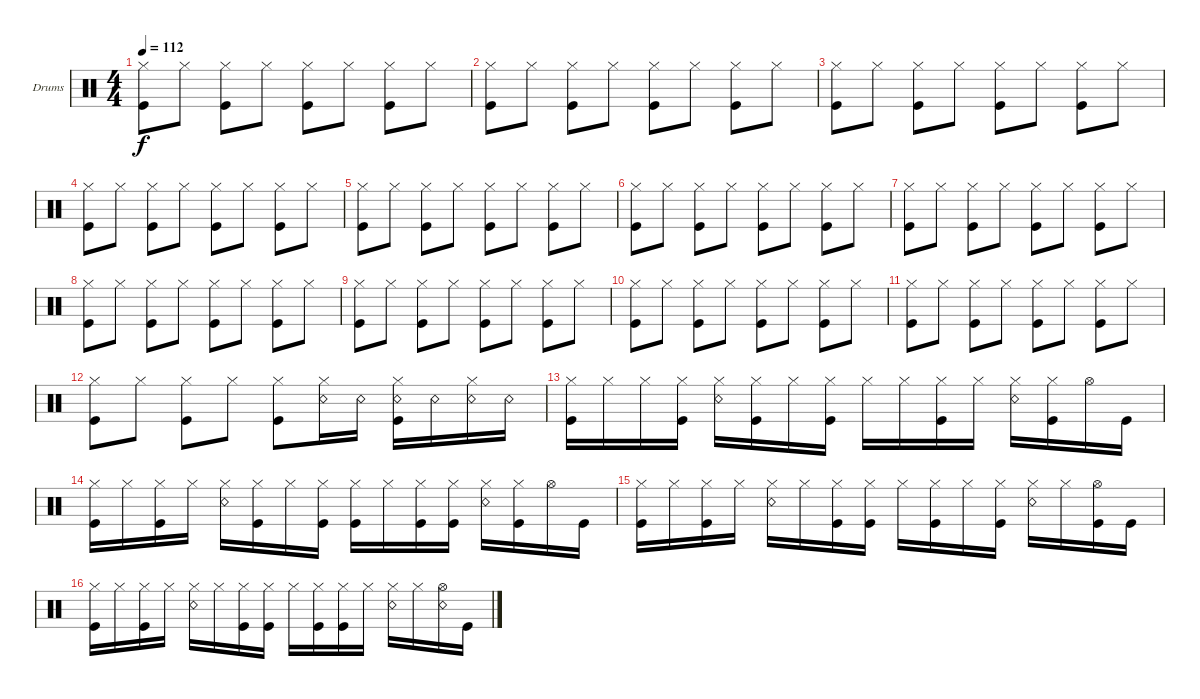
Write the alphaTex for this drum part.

\defaultSystemsLayout 4
\bracketExtendMode groupsimilarinstruments
\firstSystemTrackNameOrientation horizontal
\otherSystemsTrackNameOrientation horizontal
\track ("Drumkit" "Drums") {instrument percussion}
\staff {score}
\articulation defaults
\ts (4 4)
\tempo 112
\clef neutral
\ks c
("Kick (hit)" "Hi-Hat (closed)").8{dy f} "Hi-Hat (closed)".8 ("Hi-Hat (closed)" "Kick (hit)").8 "Hi-Hat (closed)".8 ("Hi-Hat (closed)" "Kick (hit)").8 "Hi-Hat (closed)".8 ("Hi-Hat (closed)" "Kick (hit)").8 "Hi-Hat (closed)".8 |
("Kick (hit)" "Hi-Hat (closed)").8 "Hi-Hat (closed)".8 ("Hi-Hat (closed)" "Kick (hit)").8 "Hi-Hat (closed)".8 ("Hi-Hat (closed)" "Kick (hit)").8 "Hi-Hat (closed)".8 ("Hi-Hat (closed)" "Kick (hit)").8 "Hi-Hat (closed)".8 |
("Kick (hit)" "Hi-Hat (closed)").8 "Hi-Hat (closed)".8 ("Hi-Hat (closed)" "Kick (hit)").8 "Hi-Hat (closed)".8 ("Hi-Hat (closed)" "Kick (hit)").8 "Hi-Hat (closed)".8 ("Hi-Hat (closed)" "Kick (hit)").8 "Hi-Hat (closed)".8 |
("Kick (hit)" "Hi-Hat (closed)").8 "Hi-Hat (closed)".8 ("Hi-Hat (closed)" "Kick (hit)").8 "Hi-Hat (closed)".8 ("Hi-Hat (closed)" "Kick (hit)").8 "Hi-Hat (closed)".8 ("Hi-Hat (closed)" "Kick (hit)").8 "Hi-Hat (closed)".8 |
("Kick (hit)" "Hi-Hat (closed)").8 "Hi-Hat (closed)".8 ("Hi-Hat (closed)" "Kick (hit)").8 "Hi-Hat (closed)".8 ("Hi-Hat (closed)" "Kick (hit)").8 "Hi-Hat (closed)".8 ("Hi-Hat (closed)" "Kick (hit)").8 "Hi-Hat (closed)".8 |
("Kick (hit)" "Hi-Hat (closed)").8 "Hi-Hat (closed)".8 ("Hi-Hat (closed)" "Kick (hit)").8 "Hi-Hat (closed)".8 ("Hi-Hat (closed)" "Kick (hit)").8 "Hi-Hat (closed)".8 ("Hi-Hat (closed)" "Kick (hit)").8 "Hi-Hat (closed)".8 |
("Kick (hit)" "Hi-Hat (closed)").8 "Hi-Hat (closed)".8 ("Hi-Hat (closed)" "Kick (hit)").8 "Hi-Hat (closed)".8 ("Hi-Hat (closed)" "Kick (hit)").8 "Hi-Hat (closed)".8 ("Hi-Hat (closed)" "Kick (hit)").8 "Hi-Hat (closed)".8 |
("Kick (hit)" "Hi-Hat (closed)").8 "Hi-Hat (closed)".8 ("Hi-Hat (closed)" "Kick (hit)").8 "Hi-Hat (closed)".8 ("Hi-Hat (closed)" "Kick (hit)").8 "Hi-Hat (closed)".8 ("Hi-Hat (closed)" "Kick (hit)").8 "Hi-Hat (closed)".8 |
("Kick (hit)" "Hi-Hat (closed)").8 "Hi-Hat (closed)".8 ("Hi-Hat (closed)" "Kick (hit)").8 "Hi-Hat (closed)".8 ("Hi-Hat (closed)" "Kick (hit)").8 "Hi-Hat (closed)".8 ("Hi-Hat (closed)" "Kick (hit)").8 "Hi-Hat (closed)".8 |
("Kick (hit)" "Hi-Hat (closed)").8 "Hi-Hat (closed)".8 ("Hi-Hat (closed)" "Kick (hit)").8 "Hi-Hat (closed)".8 ("Hi-Hat (closed)" "Kick (hit)").8 "Hi-Hat (closed)".8 ("Hi-Hat (closed)" "Kick (hit)").8 "Hi-Hat (closed)".8 |
("Kick (hit)" "Hi-Hat (closed)").8 "Hi-Hat (closed)".8 ("Hi-Hat (closed)" "Kick (hit)").8 "Hi-Hat (closed)".8 ("Hi-Hat (closed)" "Kick (hit)").8 "Hi-Hat (closed)".8 ("Hi-Hat (closed)" "Kick (hit)").8 "Hi-Hat (closed)".8 |
("Kick (hit)" "Hi-Hat (closed)").8 "Hi-Hat (closed)".8 ("Hi-Hat (closed)" "Kick (hit)").8 "Hi-Hat (closed)".8 ("Hi-Hat (closed)" "Kick (hit)").8 ("Hi-Hat (closed)" "Snare (rim shot)").16 "Snare (rim shot)".16 ("Hi-Hat (closed)" "Kick (hit)" "Snare (rim shot)").16 "Snare (rim shot)".16 ("Hi-Hat (closed)" "Snare (rim shot)").16 "Snare (rim shot)".16 |
("Hi-Hat (closed)" "Kick (hit)").16 "Hi-Hat (closed)".16 "Hi-Hat (closed)".16 ("Hi-Hat (closed)" "Kick (hit)").16 ("Hi-Hat (closed)" "Snare (rim shot)").16 ("Hi-Hat (closed)" "Kick (hit)").16 "Hi-Hat (closed)".16 ("Hi-Hat (closed)" "Kick (hit)").16 "Hi-Hat (closed)".16 "Hi-Hat (closed)".16 ("Hi-Hat (closed)" "Kick (hit)").16 "Hi-Hat (closed)".16 ("Hi-Hat (closed)" "Snare (rim shot)").16 ("Hi-Hat (closed)" "Kick (hit)").16 "Hi-Hat (open)".16 "Kick (hit)".16 |
("Hi-Hat (closed)" "Kick (hit)").16 "Hi-Hat (closed)".16 ("Hi-Hat (closed)" "Kick (hit)").16 "Hi-Hat (closed)".16 ("Hi-Hat (closed)" "Snare (rim shot)").16 ("Hi-Hat (closed)" "Kick (hit)").16 "Hi-Hat (closed)".16 ("Hi-Hat (closed)" "Kick (hit)").16 ("Hi-Hat (closed)" "Kick (hit)").16 "Hi-Hat (closed)".16 ("Hi-Hat (closed)" "Kick (hit)").16 ("Hi-Hat (closed)" "Kick (hit)").16 ("Hi-Hat (closed)" "Snare (rim shot)").16 ("Hi-Hat (closed)" "Kick (hit)").16 "Hi-Hat (open)".16 "Kick (hit)".16 |
("Hi-Hat (closed)" "Kick (hit)").16 "Hi-Hat (closed)".16 ("Hi-Hat (closed)" "Kick (hit)").16 "Hi-Hat (closed)".16 ("Hi-Hat (closed)" "Snare (rim shot)").16 "Hi-Hat (closed)".16 ("Hi-Hat (closed)" "Kick (hit)").16 ("Hi-Hat (closed)" "Kick (hit)").16 "Hi-Hat (closed)".16 ("Hi-Hat (closed)" "Kick (hit)").16 "Hi-Hat (closed)".16 ("Hi-Hat (closed)" "Kick (hit)").16 ("Hi-Hat (closed)" "Snare (rim shot)").16 "Hi-Hat (closed)".16 ("Hi-Hat (open)" "Kick (hit)").16 "Kick (hit)".16 |
("Hi-Hat (closed)" "Kick (hit)").16 "Hi-Hat (closed)".16 ("Hi-Hat (closed)" "Kick (hit)").16 "Hi-Hat (closed)".16 ("Hi-Hat (closed)" "Snare (rim shot)").16 "Hi-Hat (closed)".16 ("Hi-Hat (closed)" "Kick (hit)").16 ("Hi-Hat (closed)" "Kick (hit)").16 "Hi-Hat (closed)".16 ("Hi-Hat (closed)" "Kick (hit)").16 ("Hi-Hat (closed)" "Kick (hit)").16 "Hi-Hat (closed)".16 ("Hi-Hat (closed)" "Snare (rim shot)").16 "Hi-Hat (closed)".16 ("Hi-Hat (open)" "Snare (rim shot)").16 "Kick (hit)".16
